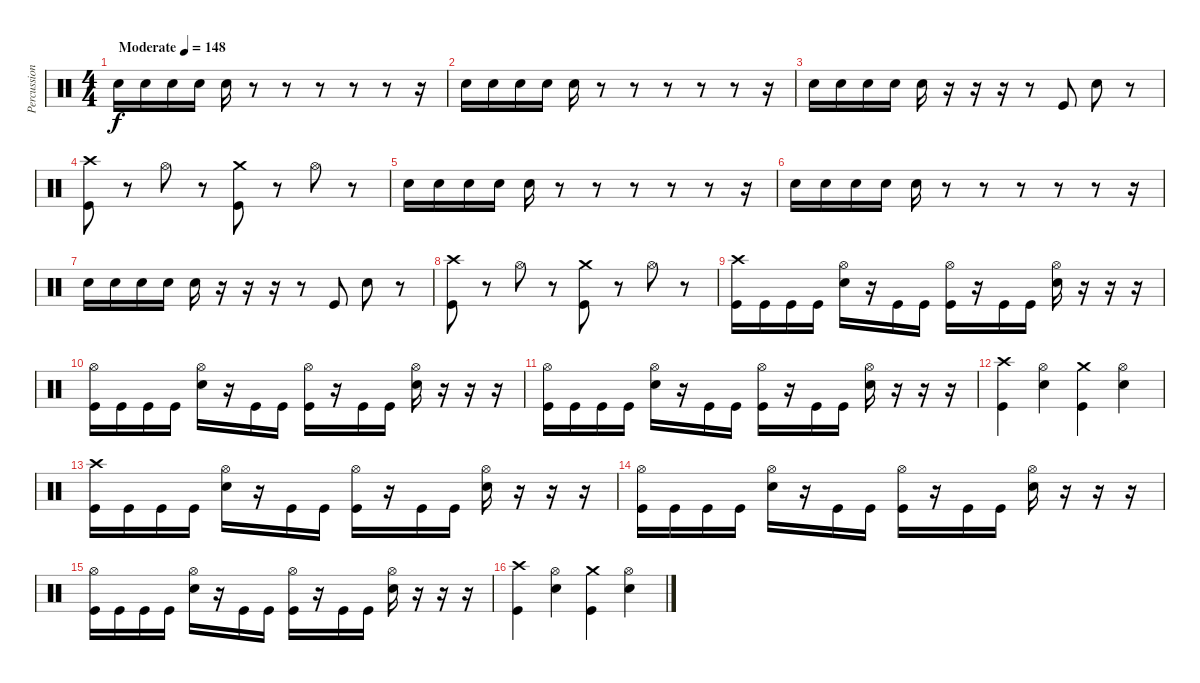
\track ("Percussion" "Percussion") {instrument percussion}
\staff {score}
\articulation defaults
\ts (4 4)
\tempo (148 "Moderate")
\clef neutral
\ks c "Electric Snare (hit)".16{dy f} "Electric Snare (hit)".16 "Electric Snare (hit)".16 "Electric Snare (hit)".16 "Electric Snare (hit)".16
r.8 r.8 r.8 r.8 r.8 r.16 |
"Electric Snare (hit)".16 "Electric Snare (hit)".16 "Electric Snare (hit)".16 "Electric Snare (hit)".16 "Electric Snare (hit)".16 r.8 r.8 r.8 r.8 r.8 r.16 |
"Electric Snare (hit)".16 "Electric Snare (hit)".16 "Electric Snare (hit)".16 "Electric Snare (hit)".16 "Electric Snare (hit)".16 r.16 r.16 r.16 r.8 "Kick (hit)".8 "Electric Snare (hit)".8 r.8 |
("Crash high (hit)" "Kick (hit)").8 r.8 "Hi-Hat (open)".8 r.8 ("Crash medium (hit)" "Kick (hit)").8 r.8 "Hi-Hat (open)".8 r.8 |
"Electric Snare (hit)".16 "Electric Snare (hit)".16 "Electric Snare (hit)".16 "Electric Snare (hit)".16 "Electric Snare (hit)".16 r.8 r.8 r.8 r.8 r.8 r.16 |
"Electric Snare (hit)".16 "Electric Snare (hit)".16 "Electric Snare (hit)".16 "Electric Snare (hit)".16 "Electric Snare (hit)".16 r.8 r.8 r.8 r.8 r.8 r.16 |
"Electric Snare (hit)".16 "Electric Snare (hit)".16 "Electric Snare (hit)".16 "Electric Snare (hit)".16 "Electric Snare (hit)".16 r.16 r.16 r.16 r.8 "Kick (hit)".8 "Electric Snare (hit)".8 r.8 |
("Crash high (hit)" "Kick (hit)").8 r.8 "Hi-Hat (open)".8 r.8 ("Crash medium (hit)" "Kick (hit)").8 r.8 "Hi-Hat (open)".8 r.8 |
("Crash high (hit)" "Kick (hit)").16 "Kick (hit)".16 "Kick (hit)".16 "Kick (hit)".16 ("Hi-Hat (open)" "Electric Snare (hit)").16 r.16 "Kick (hit)".16 "Kick (hit)".16 ("Hi-Hat (open)" "Kick (hit)").16 r.16 "Kick (hit)".16 "Kick (hit)".16 ("Hi-Hat (open)" "Electric Snare (hit)").16 r.16 r.16 r.16 |
("Hi-Hat (open)" "Kick (hit)").16 "Kick (hit)".16 "Kick (hit)".16 "Kick (hit)".16 ("Hi-Hat (open)" "Electric Snare (hit)").16 r.16 "Kick (hit)".16 "Kick (hit)".16 ("Hi-Hat (open)" "Kick (hit)").16 r.16 "Kick (hit)".16 "Kick (hit)".16 ("Hi-Hat (open)" "Electric Snare (hit)").16 r.16 r.16 r.16 |
("Hi-Hat (open)" "Kick (hit)").16 "Kick (hit)".16 "Kick (hit)".16 "Kick (hit)".16 ("Hi-Hat (open)" "Electric Snare (hit)").16 r.16 "Kick (hit)".16 "Kick (hit)".16 ("Hi-Hat (open)" "Kick (hit)").16 r.16 "Kick (hit)".16 "Kick (hit)".16 ("Hi-Hat (open)" "Electric Snare (hit)").16 r.16 r.16 r.16 |
("Crash high (hit)" "Kick (hit)").4 ("Electric Snare (hit)" "Hi-Hat (open)").4 ("Crash medium (hit)" "Kick (hit)").4 ("Electric Snare (hit)" "Hi-Hat (open)").4 |
("Crash high (hit)" "Kick (hit)").16 "Kick (hit)".16 "Kick (hit)".16 "Kick (hit)".16 ("Hi-Hat (open)" "Electric Snare (hit)").16 r.16 "Kick (hit)".16 "Kick (hit)".16 ("Hi-Hat (open)" "Kick (hit)").16 r.16 "Kick (hit)".16 "Kick (hit)".16 ("Hi-Hat (open)" "Electric Snare (hit)").16 r.16 r.16 r.16 |
("Hi-Hat (open)" "Kick (hit)").16 "Kick (hit)".16 "Kick (hit)".16 "Kick (hit)".16 ("Hi-Hat (open)" "Electric Snare (hit)").16 r.16 "Kick (hit)".16 "Kick (hit)".16 ("Hi-Hat (open)" "Kick (hit)").16 r.16 "Kick (hit)".16 "Kick (hit)".16 ("Hi-Hat (open)" "Electric Snare (hit)").16 r.16 r.16 r.16 |
("Hi-Hat (open)" "Kick (hit)").16 "Kick (hit)".16 "Kick (hit)".16 "Kick (hit)".16 ("Hi-Hat (open)" "Electric Snare (hit)").16 r.16 "Kick (hit)".16 "Kick (hit)".16 ("Hi-Hat (open)" "Kick (hit)").16 r.16 "Kick (hit)".16 "Kick (hit)".16 ("Hi-Hat (open)" "Electric Snare (hit)").16 r.16 r.16 r.16 |
("Crash high (hit)" "Kick (hit)").4 ("Electric Snare (hit)" "Hi-Hat (open)").4 ("Crash medium (hit)" "Kick (hit)").4 ("Electric Snare (hit)" "Hi-Hat (open)").4
